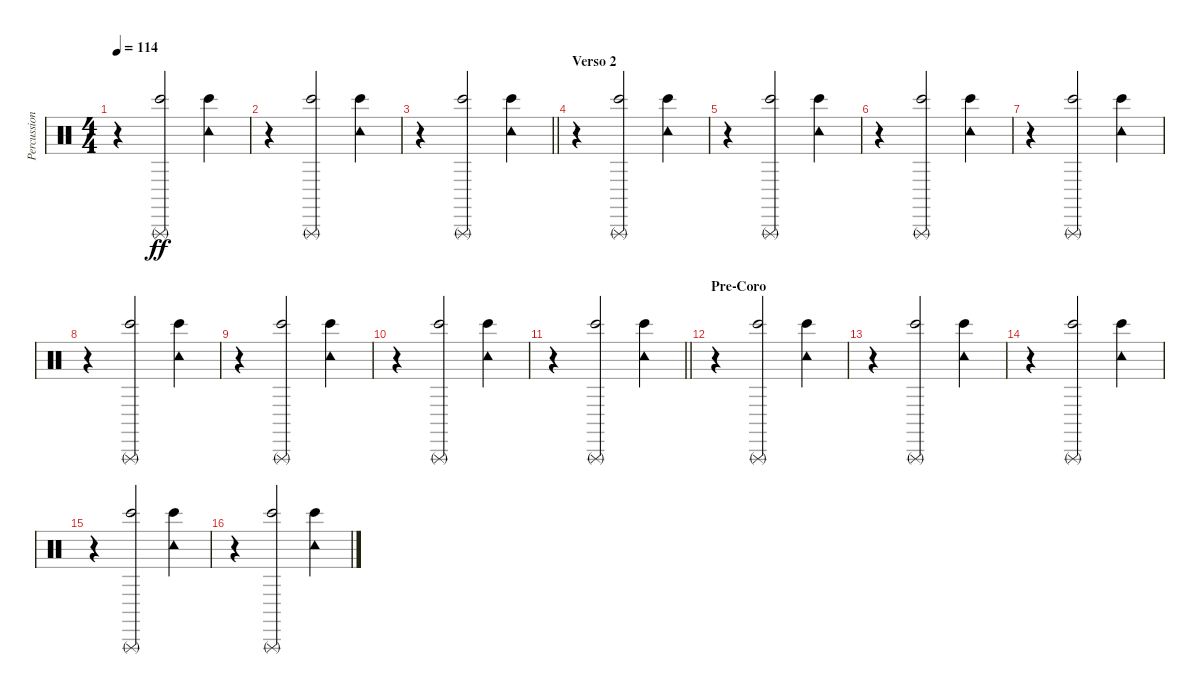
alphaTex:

\track ("Percussion" "Percussion") {instrument percussion}
\staff {score}
\articulation defaults
\ts (4 4)
\tempo 114
\clef neutral
\ks c
r.4{dy ff} ("Triangle (rnute)" "Bongo High (hit)").2 ("Tambourine (hit)" "Bongo High (hit)").4 |
r.4 ("Triangle (rnute)" "Bongo High (hit)").2 ("Tambourine (hit)" "Bongo High (hit)").4 |
\barLineRight lightlight
r.4 ("Triangle (rnute)" "Bongo High (hit)").2 ("Tambourine (hit)" "Bongo High (hit)").4 |
\section ("" "Verso 2")
r.4 ("Triangle (rnute)" "Bongo High (hit)").2 ("Tambourine (hit)" "Bongo High (hit)").4 |
r.4 ("Triangle (rnute)" "Bongo High (hit)").2 ("Tambourine (hit)" "Bongo High (hit)").4 |
r.4 ("Triangle (rnute)" "Bongo High (hit)").2 ("Tambourine (hit)" "Bongo High (hit)").4 |
r.4 ("Triangle (rnute)" "Bongo High (hit)").2 ("Tambourine (hit)" "Bongo High (hit)").4 |
r.4 ("Triangle (rnute)" "Bongo High (hit)").2 ("Tambourine (hit)" "Bongo High (hit)").4 |
r.4 ("Triangle (rnute)" "Bongo High (hit)").2 ("Tambourine (hit)" "Bongo High (hit)").4 |
r.4 ("Triangle (rnute)" "Bongo High (hit)").2 ("Tambourine (hit)" "Bongo High (hit)").4 |
\barLineRight lightlight
r.4 ("Triangle (rnute)" "Bongo High (hit)").2 ("Tambourine (hit)" "Bongo High (hit)").4 |
\section ("" "Pre-Coro")
r.4 ("Triangle (rnute)" "Bongo High (hit)").2 ("Tambourine (hit)" "Bongo High (hit)").4 |
r.4 ("Triangle (rnute)" "Bongo High (hit)").2 ("Tambourine (hit)" "Bongo High (hit)").4 |
r.4 ("Triangle (rnute)" "Bongo High (hit)").2 ("Tambourine (hit)" "Bongo High (hit)").4 |
r.4 ("Triangle (rnute)" "Bongo High (hit)").2 ("Tambourine (hit)" "Bongo High (hit)").4 |
r.4 ("Triangle (rnute)" "Bongo High (hit)").2 ("Tambourine (hit)" "Bongo High (hit)").4
